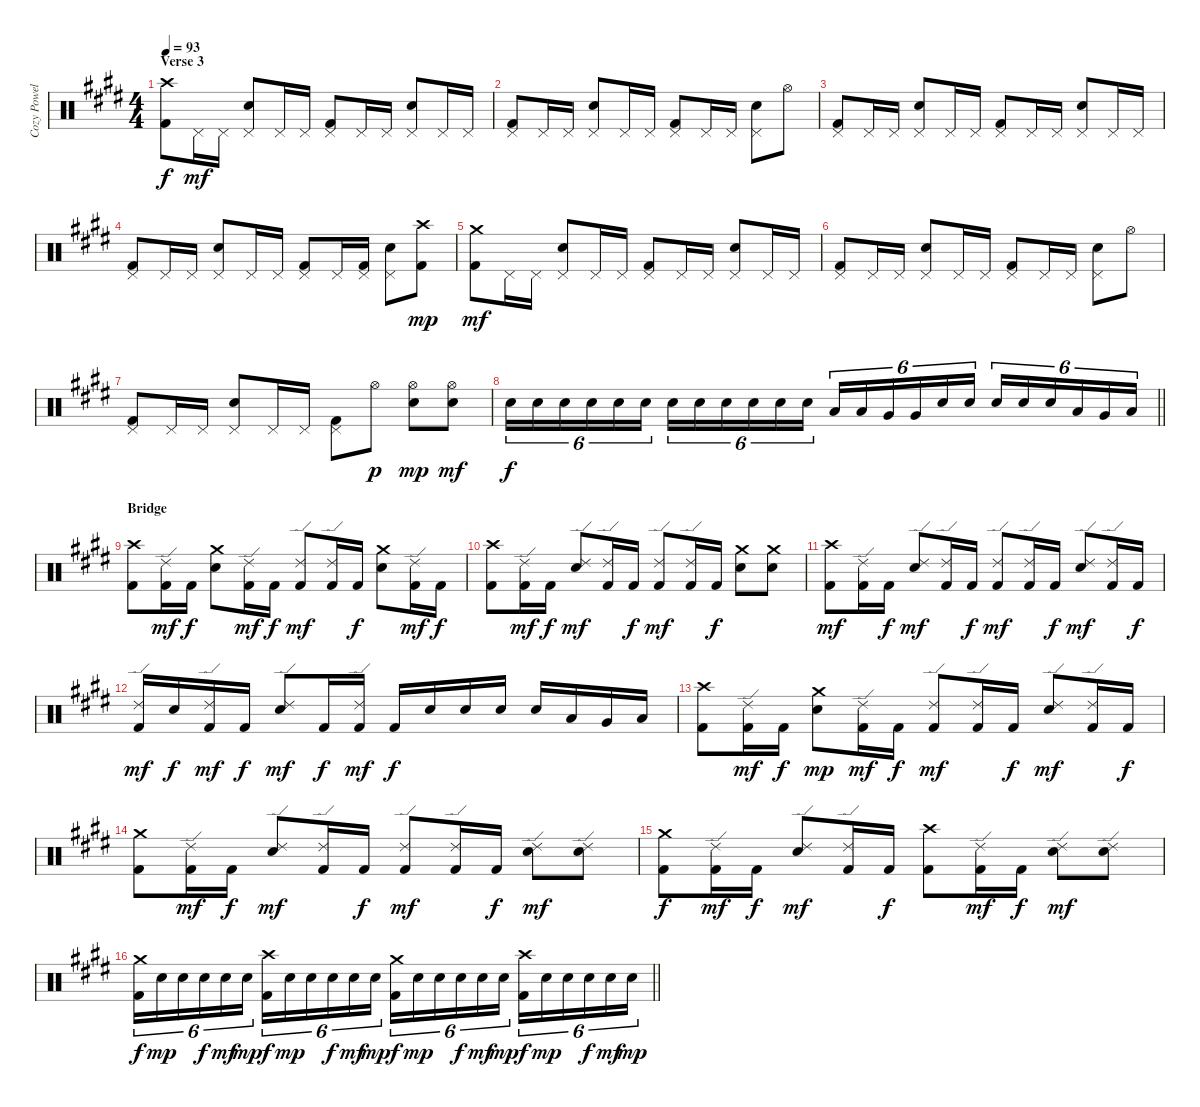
\track ("Cozy Powell" "Cozy Powel") {instrument percussion}
\staff {score}
\articulation defaults
\ts (4 4)
\section ("" "Verse 3")
\tempo 93
\clef neutral
\ks c#minor
("Kick (hit) 2" "Crash high (hit)").8{dy f} "Pedal Hi-Hat (hit)".16{dy mf} "Pedal Hi-Hat (hit)".16 ("Pedal Hi-Hat (hit)" "Snare (hit) 2").8 "Pedal Hi-Hat (hit)".16 "Pedal Hi-Hat (hit)".16 ("Kick (hit) 2" "Pedal Hi-Hat (hit)").8 "Pedal Hi-Hat (hit)".16 "Pedal Hi-Hat (hit)".16 ("Pedal Hi-Hat (hit)" "Snare (hit) 2").8 "Pedal Hi-Hat (hit)".16 "Pedal Hi-Hat (hit)".16 |
("Kick (hit) 2" "Pedal Hi-Hat (hit)").8 "Pedal Hi-Hat (hit)".16 "Pedal Hi-Hat (hit)".16 ("Pedal Hi-Hat (hit)" "Snare (hit) 2").8 "Pedal Hi-Hat (hit)".16 "Pedal Hi-Hat (hit)".16 ("Kick (hit) 2" "Pedal Hi-Hat (hit)").8 "Pedal Hi-Hat (hit)".16 "Pedal Hi-Hat (hit)".16 ("Pedal Hi-Hat (hit)" "Snare (hit) 2").8 "Hi-Hat (open)".8 |
("Kick (hit) 2" "Pedal Hi-Hat (hit)").8 "Pedal Hi-Hat (hit)".16 "Pedal Hi-Hat (hit)".16 ("Pedal Hi-Hat (hit)" "Snare (hit) 2").8 "Pedal Hi-Hat (hit)".16 "Pedal Hi-Hat (hit)".16 ("Kick (hit) 2" "Pedal Hi-Hat (hit)").8 "Pedal Hi-Hat (hit)".16 "Pedal Hi-Hat (hit)".16 ("Pedal Hi-Hat (hit)" "Snare (hit) 2").8 "Pedal Hi-Hat (hit)".16 "Pedal Hi-Hat (hit)".16 |
("Kick (hit) 2" "Pedal Hi-Hat (hit)").8 "Pedal Hi-Hat (hit)".16 "Pedal Hi-Hat (hit)".16 ("Pedal Hi-Hat (hit)" "Snare (hit) 2").8 "Pedal Hi-Hat (hit)".16 "Pedal Hi-Hat (hit)".16 ("Kick (hit) 2" "Pedal Hi-Hat (hit)").8 "Pedal Hi-Hat (hit)".16 ("Kick (hit) 2" "Pedal Hi-Hat (hit)").16 ("Pedal Hi-Hat (hit)" "Snare (hit) 2").8 ("Kick (hit) 2" "Crash high (hit)").8{dy mp} |
("Kick (hit) 2" "Crash medium (hit)").8{dy mf} "Pedal Hi-Hat (hit)".16 "Pedal Hi-Hat (hit)".16 ("Pedal Hi-Hat (hit)" "Snare (hit) 2").8 "Pedal Hi-Hat (hit)".16 "Pedal Hi-Hat (hit)".16 ("Kick (hit) 2" "Pedal Hi-Hat (hit)").8 "Pedal Hi-Hat (hit)".16 "Pedal Hi-Hat (hit)".16 ("Pedal Hi-Hat (hit)" "Snare (hit) 2").8 "Pedal Hi-Hat (hit)".16 "Pedal Hi-Hat (hit)".16 |
("Kick (hit) 2" "Pedal Hi-Hat (hit)").8 "Pedal Hi-Hat (hit)".16 "Pedal Hi-Hat (hit)".16 ("Pedal Hi-Hat (hit)" "Snare (hit) 2").8 "Pedal Hi-Hat (hit)".16 "Pedal Hi-Hat (hit)".16 ("Kick (hit) 2" "Pedal Hi-Hat (hit)").8 "Pedal Hi-Hat (hit)".16 "Pedal Hi-Hat (hit)".16 ("Pedal Hi-Hat (hit)" "Snare (hit) 2").8 "Hi-Hat (open)".8 |
("Kick (hit) 2" "Pedal Hi-Hat (hit)").8 "Pedal Hi-Hat (hit)".16 "Pedal Hi-Hat (hit)".16 ("Pedal Hi-Hat (hit)" "Snare (hit) 2").8 "Pedal Hi-Hat (hit)".16 "Pedal Hi-Hat (hit)".16 ("Kick (hit) 2" "Pedal Hi-Hat (hit)").8 "Hi-Hat (open)".8{dy p} ("Hi-Hat (open)" "Snare (hit) 2").8{dy mp} ("Hi-Hat (open)" "Snare (hit) 2").8{dy mf} |
\barLineRight lightlight "Snare (hit) 2".16{tu (6 4) dy f} "Snare (hit) 2".16{tu (6 4)} "Snare (hit) 2".16{tu (6 4)} "Snare (hit) 2".16{tu (6 4)} "Snare (hit) 2".16{tu (6 4)} "Snare (hit) 2".16{tu (6 4)} "Snare (hit) 2".16{tu (6 4)} "Snare (hit) 2".16{tu (6 4)} "Snare (hit) 2".16{tu (6 4)} "Snare (hit) 2".16{tu (6 4)} "Snare (hit) 2".16{tu (6 4)} "Snare (hit) 2".16{tu (6 4)} "Low Tom (hit)".16{tu (6 4)} "Low Tom (hit)".16{tu (6 4)} "Very Low Tom (hit)".16{tu (6 4)} "Very Low Tom (hit)".16{tu (6 4)} "Snare (hit) 2".16{tu (6 4)} "Snare (hit) 2".16{tu (6 4)} "Snare (hit) 2".16{tu (6 4)} "Snare (hit) 2".16{tu (6 4)} "Snare (hit) 2".16{tu (6 4)} "Low Tom (hit)".16{tu (6 4)} "Very Low Tom (hit)".16{tu (6 4)} "Low Floor Tom (hit)".16{tu (6 4)}
|
\section ("" "Bridge")
("Kick (hit) 2" "Crash high (hit)").8 ("Kick (hit) 2" "Ride (edge) 2").16{dy mf} "Kick (hit) 2".16{dy f} ("Crash medium (hit)" "Snare (hit) 2").8 ("Kick (hit) 2" "Ride (edge) 2").16{dy mf} "Kick (hit) 2".16{dy f} ("Kick (hit) 2" "Ride (edge) 2").8{dy mf} ("Kick (hit) 2" "Ride (edge) 2").16 "Kick (hit) 2".16{dy f} ("Crash medium (hit)" "Snare (hit) 2").8 ("Kick (hit) 2" "Ride (edge) 2").16{dy mf} "Kick (hit) 2".16{dy f} |
("Kick (hit) 2" "Crash high (hit)").8 ("Kick (hit) 2" "Ride (edge) 2").16{dy mf} "Kick (hit) 2".16{dy f} ("Ride (edge) 2" "Snare (hit) 2").8{dy mf} ("Kick (hit) 2" "Ride (edge) 2").16 "Kick (hit) 2".16{dy f} ("Kick (hit) 2" "Ride (edge) 2").8{dy mf} ("Kick (hit) 2" "Ride (edge) 2").16 "Kick (hit) 2".16{dy f} ("Crash medium (hit)" "Snare (hit) 2").8 ("Crash medium (hit)" "Snare (hit) 2").8 |
("Kick (hit) 2" "Crash high (hit)").8{dy mf} ("Kick (hit) 2" "Ride (edge) 2").16 "Kick (hit) 2".16{dy f} ("Ride (edge) 2" "Snare (hit) 2").8{dy mf} ("Kick (hit) 2" "Ride (edge) 2").16 "Kick (hit) 2".16{dy f} ("Kick (hit) 2" "Ride (edge) 2").8{dy mf} ("Kick (hit) 2" "Ride (edge) 2").16 "Kick (hit) 2".16{dy f} ("Ride (edge) 2" "Snare (hit) 2").8{dy mf} ("Kick (hit) 2" "Ride (edge) 2").16 "Kick (hit) 2".16{dy f} |
("Kick (hit) 2" "Ride (edge) 2").16{dy mf} "Snare (hit) 2".16{dy f} ("Kick (hit) 2" "Ride (edge) 2").16{dy mf} "Kick (hit) 2".16{dy f} ("Ride (edge) 2" "Snare (hit) 2").8{dy mf} "Kick (hit) 2".16{dy f} ("Kick (hit) 2" "Ride (edge) 2").16{dy mf} "Kick (hit) 2".16{dy f} "Snare (hit) 2".16 "Snare (hit) 2".16 "Snare (hit) 2".16 "Snare (hit) 2".16 "Low Tom (hit)".16 "Very Low Tom (hit)".16 "Low Floor Tom (hit)".16 |
("Kick (hit) 2" "Crash high (hit)").8 ("Kick (hit) 2" "Ride (edge) 2").16{dy mf} "Kick (hit) 2".16{dy f} ("Crash medium (hit)" "Snare (hit) 2").8{dy mp} ("Kick (hit) 2" "Ride (edge) 2").16{dy mf} "Kick (hit) 2".16{dy f} ("Kick (hit) 2" "Ride (edge) 2").8{dy mf} ("Kick (hit) 2" "Ride (edge) 2").16 "Kick (hit) 2".16{dy f} ("Ride (edge) 2" "Snare (hit) 2").8{dy mf} ("Kick (hit) 2" "Ride (edge) 2").16 "Kick (hit) 2".16{dy f} |
("Kick (hit) 2" "Crash medium (hit)").8 ("Kick (hit) 2" "Ride (edge) 2").16{dy mf} "Kick (hit) 2".16{dy f} ("Ride (edge) 2" "Snare (hit) 2").8{dy mf} ("Kick (hit) 2" "Ride (edge) 2").16 "Kick (hit) 2".16{dy f} ("Kick (hit) 2" "Ride (edge) 2").8{dy mf} ("Kick (hit) 2" "Ride (edge) 2").16 "Kick (hit) 2".16{dy f} ("Ride (edge) 2" "Snare (hit) 2").8{dy mf} ("Ride (edge) 2" "Snare (hit) 2").8 |
("Kick (hit) 2" "Crash medium (hit)").8{dy f} ("Kick (hit) 2" "Ride (edge) 2").16{dy mf} "Kick (hit) 2".16{dy f} ("Ride (edge) 2" "Snare (hit) 2").8{dy mf} ("Kick (hit) 2" "Ride (edge) 2").16 "Kick (hit) 2".16{dy f} ("Kick (hit) 2" "Crash high (hit)").8 ("Kick (hit) 2" "Ride (edge) 2").16{dy mf} "Kick (hit) 2".16{dy f} ("Ride (edge) 2" "Snare (hit) 2").8{dy mf} ("Ride (edge) 2" "Snare (hit) 2").8 |
\barLineRight lightlight
("Kick (hit) 2" "Crash medium (hit)").16{tu (6 4) dy f} "Snare (hit) 2".16{tu (6 4) dy mp} "Snare (hit) 2".16{tu (6 4)} "Snare (hit) 2".16{tu (6 4) dy f} "Snare (hit) 2".16{tu (6 4) dy mf} "Snare (hit) 2".16{tu (6 4) dy mp} ("Kick (hit) 2" "Crash high (hit)").16{tu (6 4) dy f} "Snare (hit) 2".16{tu (6 4) dy mp} "Snare (hit) 2".16{tu (6 4)} "Snare (hit) 2".16{tu (6 4) dy f} "Snare (hit) 2".16{tu (6 4) dy mf} "Snare (hit) 2".16{tu (6 4) dy mp} ("Kick (hit) 2" "Crash medium (hit)").16{tu (6 4) dy f} "Snare (hit) 2".16{tu (6 4) dy mp} "Snare (hit) 2".16{tu (6 4)} "Snare (hit) 2".16{tu (6 4) dy f} "Snare (hit) 2".16{tu (6 4) dy mf} "Snare (hit) 2".16{tu (6 4) dy mp} ("Kick (hit) 2" "Crash high (hit)").16{tu (6 4) dy f} "Snare (hit) 2".16{tu (6 4) dy mp} "Snare (hit) 2".16{tu (6 4)} "Snare (hit) 2".16{tu (6 4) dy f} "Snare (hit) 2".16{tu (6 4) dy mf} "Snare (hit) 2".16{tu (6 4) dy mp}
